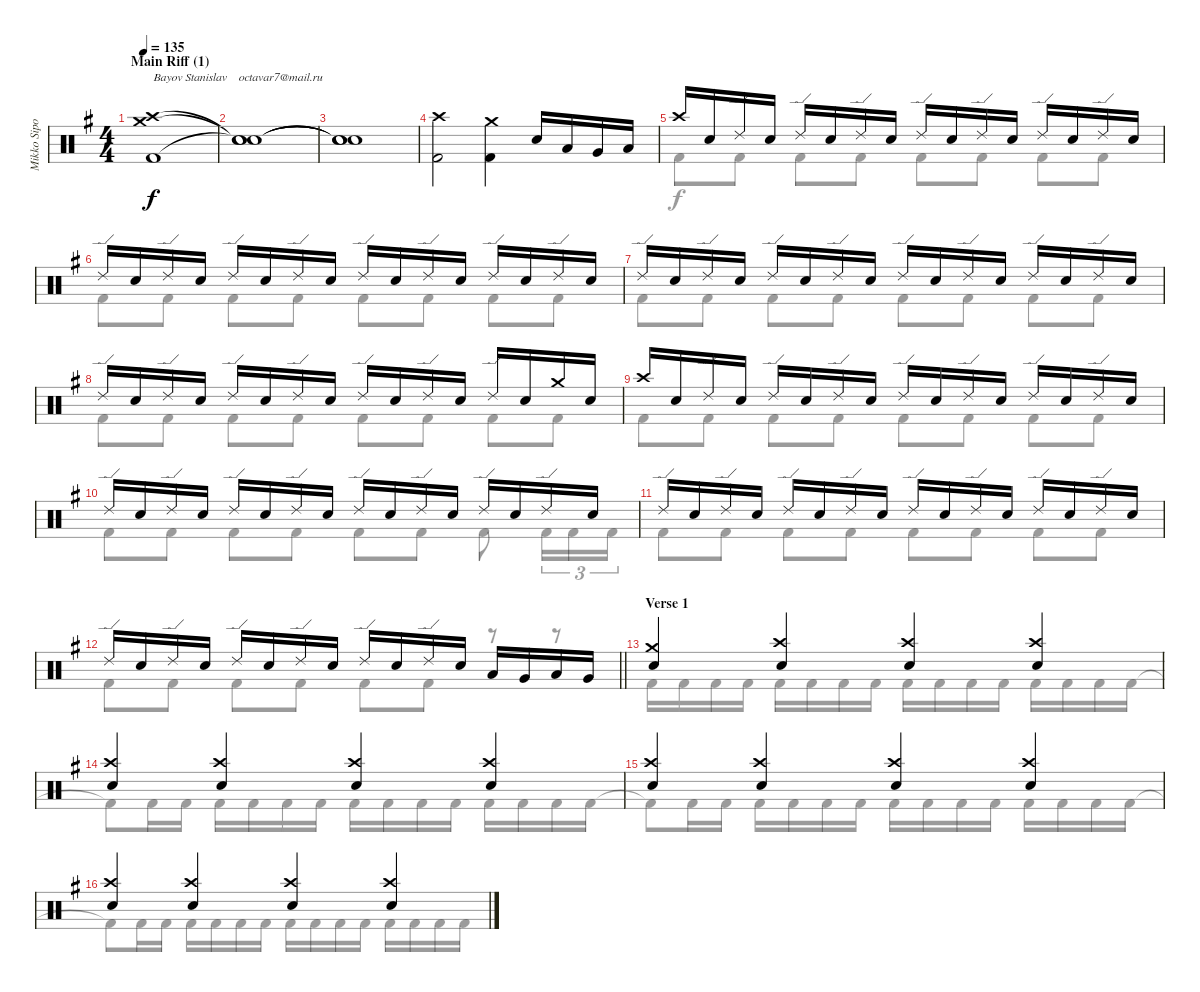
\track ("Mikko Sipola (drums)" "Mikko Sipo") {instrument percussion}
\staff {score}
\articulation defaults
\voice
\ts (4 4)
\section ("" "Main Riff (1)")
\tempo 135
\clef neutral
\ks eminor
("Crash medium (hit)" "Crash high (hit)" "Kick (hit) 2").1{txt "Bayov Stanislav    octavar7@mail.ru" dy f} |
("Snare (hit)"{t} "Snare (hit)"{t} "Snare (hit)"{t}).1 |
("Snare (hit)"{t} "Snare (hit)"{t} "Snare (hit)"{t}).1 |
("Crash high (hit)" "Kick (hit) 2").2 ("Crash medium (hit)" "Kick (hit) 2").4 "Electric Snare (hit)".16 "Low Tom (hit)".16 "Very Low Tom (hit)".16 "Low Floor Tom (hit)".16 |
"Crash high (hit)".16 "Electric Snare (hit)".16 "Ride (edge) 2".16 "Electric Snare (hit)".16 "Ride (edge) 2".16 "Electric Snare (hit)".16 "Ride (edge) 2".16 "Electric Snare (hit)".16 "Ride (edge) 2".16 "Electric Snare (hit)".16 "Ride (edge) 2".16 "Electric Snare (hit)".16 "Ride (edge) 2".16 "Electric Snare (hit)".16 "Ride (edge) 2".16 "Electric Snare (hit)".16 |
"Ride (edge) 2".16 "Electric Snare (hit)".16 "Ride (edge) 2".16 "Electric Snare (hit)".16 "Ride (edge) 2".16 "Electric Snare (hit)".16 "Ride (edge) 2".16 "Electric Snare (hit)".16 "Ride (edge) 2".16 "Electric Snare (hit)".16 "Ride (edge) 2".16 "Electric Snare (hit)".16 "Ride (edge) 2".16 "Electric Snare (hit)".16 "Ride (edge) 2".16 "Electric Snare (hit)".16 |
"Ride (edge) 2".16 "Electric Snare (hit)".16 "Ride (edge) 2".16 "Electric Snare (hit)".16 "Ride (edge) 2".16 "Electric Snare (hit)".16 "Ride (edge) 2".16 "Electric Snare (hit)".16 "Ride (edge) 2".16 "Electric Snare (hit)".16 "Ride (edge) 2".16 "Electric Snare (hit)".16 "Ride (edge) 2".16 "Electric Snare (hit)".16 "Ride (edge) 2".16 "Electric Snare (hit)".16 |
"Ride (edge) 2".16 "Electric Snare (hit)".16 "Ride (edge) 2".16 "Electric Snare (hit)".16 "Ride (edge) 2".16 "Electric Snare (hit)".16 "Ride (edge) 2".16 "Electric Snare (hit)".16 "Ride (edge) 2".16 "Electric Snare (hit)".16 "Ride (edge) 2".16 "Electric Snare (hit)".16 "Ride (edge) 2".16 "Electric Snare (hit)".16 "Crash medium (hit)".16 "Electric Snare (hit)".16 |
"Crash high (hit)".16 "Electric Snare (hit)".16 "Ride (edge) 2".16 "Electric Snare (hit)".16 "Ride (edge) 2".16 "Electric Snare (hit)".16 "Ride (edge) 2".16 "Electric Snare (hit)".16 "Ride (edge) 2".16 "Electric Snare (hit)".16 "Ride (edge) 2".16 "Electric Snare (hit)".16 "Ride (edge) 2".16 "Electric Snare (hit)".16 "Ride (edge) 2".16 "Electric Snare (hit)".16 |
"Ride (edge) 2".16 "Electric Snare (hit)".16 "Ride (edge) 2".16 "Electric Snare (hit)".16 "Ride (edge) 2".16 "Electric Snare (hit)".16 "Ride (edge) 2".16 "Electric Snare (hit)".16 "Ride (edge) 2".16 "Electric Snare (hit)".16 "Ride (edge) 2".16 "Electric Snare (hit)".16 "Ride (edge) 2".16 "Electric Snare (hit)".16 "Ride (edge) 2".16 "Electric Snare (hit)".16 |
"Ride (edge) 2".16 "Electric Snare (hit)".16 "Ride (edge) 2".16 "Electric Snare (hit)".16 "Ride (edge) 2".16 "Electric Snare (hit)".16 "Ride (edge) 2".16 "Electric Snare (hit)".16 "Ride (edge) 2".16 "Electric Snare (hit)".16 "Ride (edge) 2".16 "Electric Snare (hit)".16 "Ride (edge) 2".16 "Electric Snare (hit)".16 "Ride (edge) 2".16 "Electric Snare (hit)".16 |
\barLineRight lightlight "Ride (edge) 2".16 "Electric Snare (hit)".16 "Ride (edge) 2".16 "Electric Snare (hit)".16 "Ride (edge) 2".16 "Electric Snare (hit)".16 "Ride (edge) 2".16 "Electric Snare (hit)".16 "Ride (edge) 2".16 "Electric Snare (hit)".16 "Ride (edge) 2".16 "Electric Snare (hit)".16 "Low Tom (hit)".16 "Very Low Tom (hit)".16 "Low Floor Tom (hit)".16 "Very Low Tom (hit)".16
|
\section ("" "Verse 1")
("Electric Snare (hit)" "Crash medium (hit)").4 ("Electric Snare (hit)" "Crash high (hit)").4 ("Electric Snare (hit)" "Crash high (hit)").4 ("Electric Snare (hit)" "Crash high (hit)").4 |
("Electric Snare (hit)" "Crash high (hit)").4 ("Electric Snare (hit)" "Crash high (hit)").4 ("Electric Snare (hit)" "Crash high (hit)").4 ("Electric Snare (hit)" "Crash high (hit)").4 |
("Electric Snare (hit)" "Crash high (hit)").4 ("Electric Snare (hit)" "Crash high (hit)").4 ("Electric Snare (hit)" "Crash high (hit)").4 ("Electric Snare (hit)" "Crash high (hit)").4 |
("Electric Snare (hit)" "Crash high (hit)").4 ("Electric Snare (hit)" "Crash high (hit)").4 ("Electric Snare (hit)" "Crash high (hit)").4 ("Electric Snare (hit)" "Crash high (hit)").4
\voice
\clef neutral
\ottava regular
\simile none
\ks eminor
|
|
|
|
"Kick (hit) 2".8 "Kick (hit) 2".8 "Kick (hit) 2".8 "Kick (hit) 2".8 "Kick (hit) 2".8 "Kick (hit) 2".8 "Kick (hit) 2".8 "Kick (hit) 2".8 |
"Kick (hit) 2".8 "Kick (hit) 2".8 "Kick (hit) 2".8 "Kick (hit) 2".8 "Kick (hit) 2".8 "Kick (hit) 2".8 "Kick (hit) 2".8 "Kick (hit) 2".8 |
"Kick (hit) 2".8 "Kick (hit) 2".8 "Kick (hit) 2".8 "Kick (hit) 2".8 "Kick (hit) 2".8 "Kick (hit) 2".8 "Kick (hit) 2".8 "Kick (hit) 2".8 |
"Kick (hit) 2".8 "Kick (hit) 2".8 "Kick (hit) 2".8 "Kick (hit) 2".8 "Kick (hit) 2".8 "Kick (hit) 2".8 "Kick (hit) 2".8 "Kick (hit) 2".8 |
"Kick (hit) 2".8 "Kick (hit) 2".8 "Kick (hit) 2".8 "Kick (hit) 2".8 "Kick (hit) 2".8 "Kick (hit) 2".8 "Kick (hit) 2".8 "Kick (hit) 2".8 |
"Kick (hit) 2".8 "Kick (hit) 2".8 "Kick (hit) 2".8 "Kick (hit) 2".8 "Kick (hit) 2".8 "Kick (hit) 2".8 "Kick (hit) 2".8 "Kick (hit) 2".16{tu (3 2)} "Kick (hit) 2".16{tu (3 2)} "Kick (hit) 2".16{tu (3 2)} |
"Kick (hit) 2".8 "Kick (hit) 2".8 "Kick (hit) 2".8 "Kick (hit) 2".8 "Kick (hit) 2".8 "Kick (hit) 2".8 "Kick (hit) 2".8 "Kick (hit) 2".8 |
\barLineRight lightlight "Kick (hit) 2".8 "Kick (hit) 2".8 "Kick (hit) 2".8 "Kick (hit) 2".8 "Kick (hit) 2".8 "Kick (hit) 2".8
r.8 r.8 |
"Kick (hit) 2".16 "Kick (hit) 2".16 "Kick (hit) 2".16 "Kick (hit) 2".16 "Kick (hit) 2".16 "Kick (hit) 2".16 "Kick (hit) 2".16 "Kick (hit) 2".16 "Kick (hit) 2".16 "Kick (hit) 2".16 "Kick (hit) 2".16 "Kick (hit) 2".16 "Kick (hit) 2".16 "Kick (hit) 2".16 "Kick (hit) 2".16 "Kick (hit) 2".16 |
"Kick (hit) 2"{t}.8 "Kick (hit) 2".16 "Kick (hit) 2".16 "Kick (hit) 2".16 "Kick (hit) 2".16 "Kick (hit) 2".16 "Kick (hit) 2".16 "Kick (hit) 2".16 "Kick (hit) 2".16 "Kick (hit) 2".16 "Kick (hit) 2".16 "Kick (hit) 2".16 "Kick (hit) 2".16 "Kick (hit) 2".16 "Kick (hit) 2".16 |
"Kick (hit) 2"{t}.8 "Kick (hit) 2".16 "Kick (hit) 2".16 "Kick (hit) 2".16 "Kick (hit) 2".16 "Kick (hit) 2".16 "Kick (hit) 2".16 "Kick (hit) 2".16 "Kick (hit) 2".16 "Kick (hit) 2".16 "Kick (hit) 2".16 "Kick (hit) 2".16 "Kick (hit) 2".16 "Kick (hit) 2".16 "Kick (hit) 2".16 |
"Kick (hit) 2"{t}.8 "Kick (hit) 2".16 "Kick (hit) 2".16 "Kick (hit) 2".16 "Kick (hit) 2".16 "Kick (hit) 2".16 "Kick (hit) 2".16 "Kick (hit) 2".16 "Kick (hit) 2".16 "Kick (hit) 2".16 "Kick (hit) 2".16 "Kick (hit) 2".16 "Kick (hit) 2".16 "Kick (hit) 2".16 "Kick (hit) 2".16
